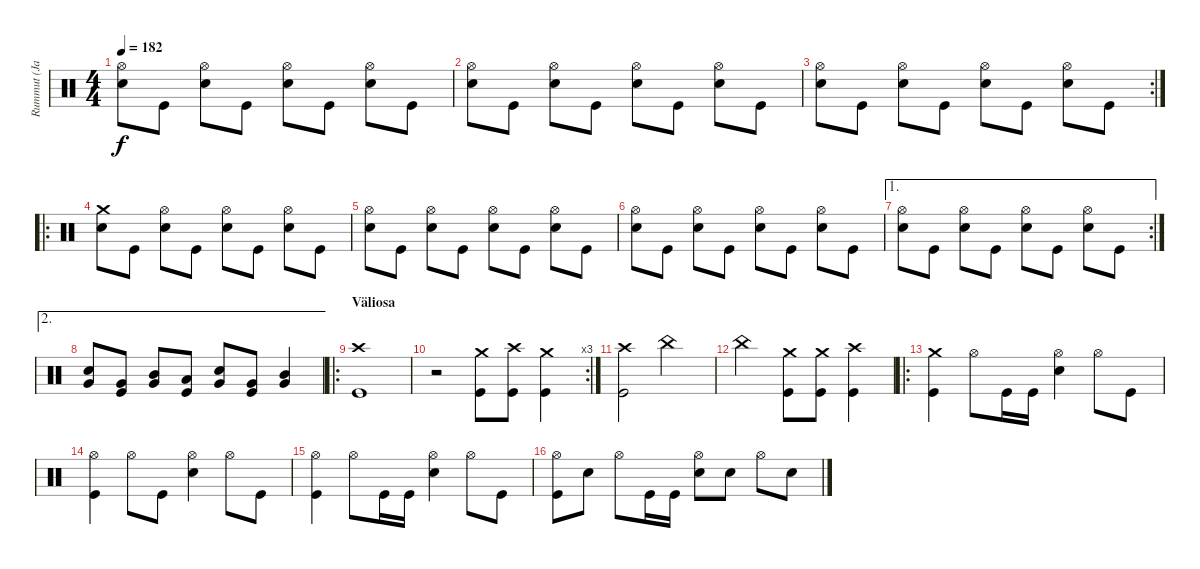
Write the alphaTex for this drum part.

\track ("Rummut (Janne)" "Rummut (Ja") {instrument percussion}
\staff {score}
\articulation defaults
\ts (4 4)
\tempo 182
\clef neutral
\ks c
("Hi-Hat (open)" "Snare (hit) 2").8{dy f} "Kick (hit)".8 ("Hi-Hat (open)" "Snare (hit) 2").8 "Kick (hit)".8 ("Hi-Hat (open)" "Snare (hit) 2").8 "Kick (hit)".8 ("Hi-Hat (open)" "Snare (hit) 2").8 "Kick (hit)".8 |
("Hi-Hat (open)" "Snare (hit) 2").8 "Kick (hit)".8 ("Hi-Hat (open)" "Snare (hit) 2").8 "Kick (hit)".8 ("Hi-Hat (open)" "Snare (hit) 2").8 "Kick (hit)".8 ("Hi-Hat (open)" "Snare (hit) 2").8 "Kick (hit)".8 |
\rc 2
("Hi-Hat (open)" "Snare (hit) 2").8 "Kick (hit)".8 ("Hi-Hat (open)" "Snare (hit) 2").8 "Kick (hit)".8 ("Hi-Hat (open)" "Snare (hit) 2").8 "Kick (hit)".8 ("Hi-Hat (open)" "Snare (hit) 2").8 "Kick (hit)".8 |
\ro
("Crash medium (hit)" "Snare (hit) 2").8 "Kick (hit)".8 ("Hi-Hat (open)" "Snare (hit) 2").8 "Kick (hit)".8 ("Hi-Hat (open)" "Snare (hit) 2").8 "Kick (hit)".8 ("Hi-Hat (open)" "Snare (hit) 2").8 "Kick (hit)".8 |
("Hi-Hat (open)" "Snare (hit) 2").8 "Kick (hit)".8 ("Hi-Hat (open)" "Snare (hit) 2").8 "Kick (hit)".8 ("Hi-Hat (open)" "Snare (hit) 2").8 "Kick (hit)".8 ("Hi-Hat (open)" "Snare (hit) 2").8 "Kick (hit)".8 |
("Hi-Hat (open)" "Snare (hit) 2").8 "Kick (hit)".8 ("Hi-Hat (open)" "Snare (hit) 2").8 "Kick (hit)".8 ("Hi-Hat (open)" "Snare (hit) 2").8 "Kick (hit)".8 ("Hi-Hat (open)" "Snare (hit) 2").8 "Kick (hit)".8 |
\ae 1
\rc 2
("Hi-Hat (open)" "Snare (hit) 2").8 "Kick (hit)".8 ("Hi-Hat (open)" "Snare (hit) 2").8 "Kick (hit)".8 ("Hi-Hat (open)" "Snare (hit) 2").8 "Kick (hit)".8 ("Hi-Hat (open)" "Snare (hit) 2").8 "Kick (hit)".8 |
\ae 2
("Very Low Tom (hit)" "Snare (hit) 2").8 ("Very Low Tom (hit)" "Kick (hit)").8 ("Very Low Tom (hit)" "Mid Tom (hit)").8 ("Low Tom (hit)" "Kick (hit)").8 ("Very Low Tom (hit)" "Snare (hit) 2").8 ("Very Low Tom (hit)" "Kick (hit)").8 ("Very Low Tom (hit)" "Mid Tom (hit)").4 |
\ro
\section ("" "Väliosa")
("Crash high (hit)" "Kick (hit)").1 |
\rc 3
r.2 ("Crash medium (hit)" "Kick (hit)").8 ("Crash high (hit)" "Kick (hit)").8 ("Crash medium (hit)" "Kick (hit)").4 |
("Crash high (hit)" "Kick (hit)").2 "China (hit)".2 |
"China (hit)".2 ("Crash medium (hit)" "Kick (hit)").8 ("Crash medium (hit)" "Kick (hit)").8 ("Crash high (hit)" "Kick (hit)").4 |
\ro
("Crash medium (hit)" "Kick (hit)").4 "Hi-Hat (open)".8 "Kick (hit)".16 "Kick (hit)".16 ("Hi-Hat (open)" "Snare (hit) 2").4 "Hi-Hat (open)".8 "Kick (hit)".8 |
("Hi-Hat (open)" "Kick (hit)").4 "Hi-Hat (open)".8 "Kick (hit)".8 ("Hi-Hat (open)" "Snare (hit) 2").4 "Hi-Hat (open)".8 "Kick (hit)".8 |
("Hi-Hat (open)" "Kick (hit)").4 "Hi-Hat (open)".8 "Kick (hit)".16 "Kick (hit)".16 ("Hi-Hat (open)" "Snare (hit) 2").4 "Hi-Hat (open)".8 "Kick (hit)".8 |
("Hi-Hat (open)" "Kick (hit)").8 "Snare (hit) 2".8 "Hi-Hat (open)".8 "Kick (hit)".16 "Kick (hit)".16 ("Hi-Hat (open)" "Snare (hit) 2").8 "Snare (hit) 2".8 "Hi-Hat (open)".8 "Snare (hit) 2".8
